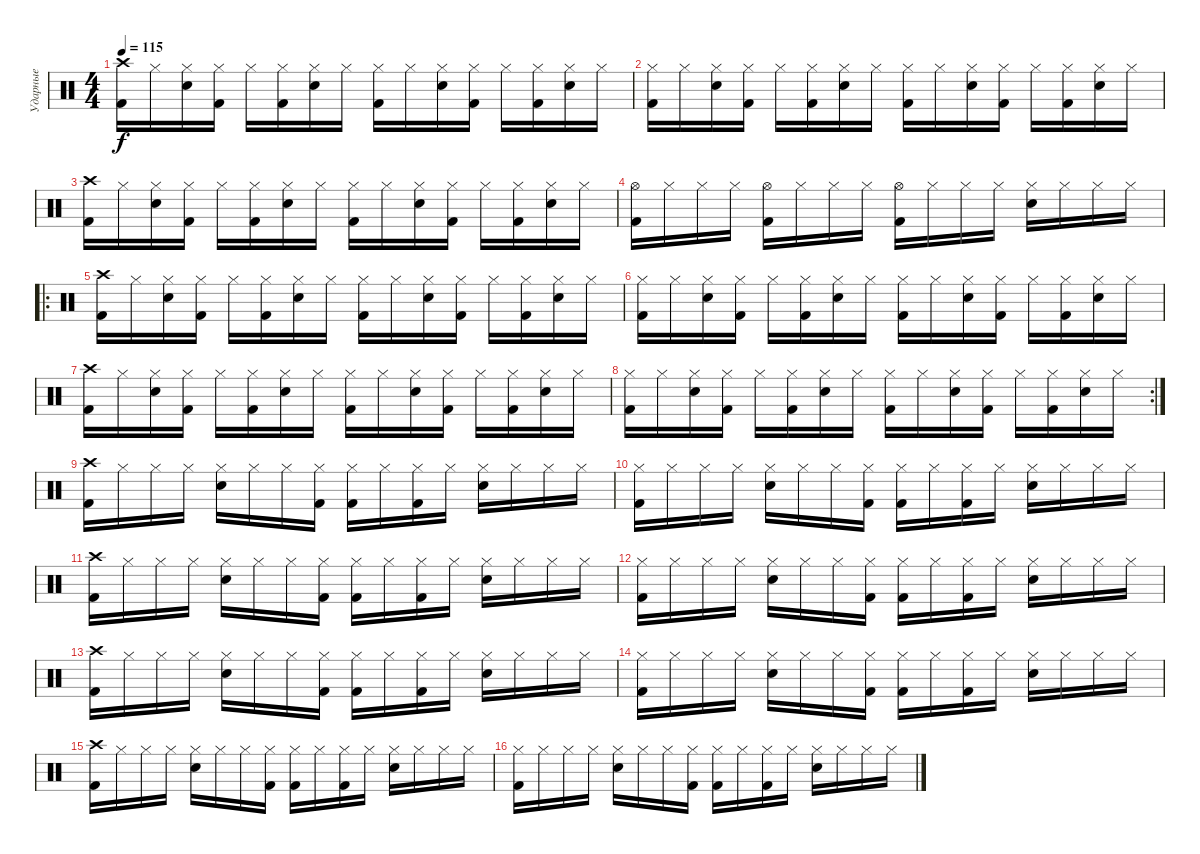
\track ("Ударные" "Ударные") {instrument percussion}
\staff {score}
\articulation defaults
\ts (4 4)
\tempo 115
\clef neutral
\ks c
("Kick (hit) 2" "Crash high (hit)").16{dy f} "Hi-Hat (closed)".16 ("Electric Snare (hit)" "Hi-Hat (closed)").16 ("Kick (hit) 2" "Hi-Hat (closed)").16 "Hi-Hat (closed)".16 ("Kick (hit) 2" "Hi-Hat (closed)").16 ("Electric Snare (hit)" "Hi-Hat (closed)").16 "Hi-Hat (closed)".16 ("Kick (hit) 2" "Hi-Hat (closed)").16 "Hi-Hat (closed)".16 ("Electric Snare (hit)" "Hi-Hat (closed)").16 ("Kick (hit) 2" "Hi-Hat (closed)").16 "Hi-Hat (closed)".16 ("Kick (hit) 2" "Hi-Hat (closed)").16 ("Electric Snare (hit)" "Hi-Hat (closed)").16 "Hi-Hat (closed)".16 |
("Kick (hit) 2" "Hi-Hat (closed)").16 "Hi-Hat (closed)".16 ("Electric Snare (hit)" "Hi-Hat (closed)").16 ("Kick (hit) 2" "Hi-Hat (closed)").16 "Hi-Hat (closed)".16 ("Kick (hit) 2" "Hi-Hat (closed)").16 ("Electric Snare (hit)" "Hi-Hat (closed)").16 "Hi-Hat (closed)".16 ("Kick (hit) 2" "Hi-Hat (closed)").16 "Hi-Hat (closed)".16 ("Electric Snare (hit)" "Hi-Hat (closed)").16 ("Kick (hit) 2" "Hi-Hat (closed)").16 "Hi-Hat (closed)".16 ("Kick (hit) 2" "Hi-Hat (closed)").16 ("Electric Snare (hit)" "Hi-Hat (closed)").16 "Hi-Hat (closed)".16 |
("Kick (hit) 2" "Crash high (hit)").16 "Hi-Hat (closed)".16 ("Electric Snare (hit)" "Hi-Hat (closed)").16 ("Kick (hit) 2" "Hi-Hat (closed)").16 "Hi-Hat (closed)".16 ("Kick (hit) 2" "Hi-Hat (closed)").16 ("Electric Snare (hit)" "Hi-Hat (closed)").16 "Hi-Hat (closed)".16 ("Kick (hit) 2" "Hi-Hat (closed)").16 "Hi-Hat (closed)".16 ("Electric Snare (hit)" "Hi-Hat (closed)").16 ("Kick (hit) 2" "Hi-Hat (closed)").16 "Hi-Hat (closed)".16 ("Kick (hit) 2" "Hi-Hat (closed)").16 ("Electric Snare (hit)" "Hi-Hat (closed)").16 "Hi-Hat (closed)".16 |
("Kick (hit) 2" "Hi-Hat (open)").16 "Hi-Hat (closed)".16 "Hi-Hat (closed)".16 "Hi-Hat (closed)".16 ("Kick (hit) 2" "Hi-Hat (open)").16 "Hi-Hat (closed)".16 "Hi-Hat (closed)".16 "Hi-Hat (closed)".16 ("Kick (hit) 2" "Hi-Hat (open)").16 "Hi-Hat (closed)".16 "Hi-Hat (closed)".16 "Hi-Hat (closed)".16 ("Electric Snare (hit)" "Hi-Hat (closed)").16 "Hi-Hat (closed)".16 "Hi-Hat (closed)".16 "Hi-Hat (closed)".16 |
\ro
("Kick (hit) 2" "Crash high (hit)").16 "Hi-Hat (closed)".16 ("Electric Snare (hit)" "Hi-Hat (closed)").16 ("Kick (hit) 2" "Hi-Hat (closed)").16 "Hi-Hat (closed)".16 ("Kick (hit) 2" "Hi-Hat (closed)").16 ("Electric Snare (hit)" "Hi-Hat (closed)").16 "Hi-Hat (closed)".16 ("Kick (hit) 2" "Hi-Hat (closed)").16 "Hi-Hat (closed)".16 ("Electric Snare (hit)" "Hi-Hat (closed)").16 ("Kick (hit) 2" "Hi-Hat (closed)").16 "Hi-Hat (closed)".16 ("Kick (hit) 2" "Hi-Hat (closed)").16 ("Electric Snare (hit)" "Hi-Hat (closed)").16 "Hi-Hat (closed)".16 |
("Kick (hit) 2" "Hi-Hat (closed)").16 "Hi-Hat (closed)".16 ("Electric Snare (hit)" "Hi-Hat (closed)").16 ("Kick (hit) 2" "Hi-Hat (closed)").16 "Hi-Hat (closed)".16 ("Kick (hit) 2" "Hi-Hat (closed)").16 ("Electric Snare (hit)" "Hi-Hat (closed)").16 "Hi-Hat (closed)".16 ("Kick (hit) 2" "Hi-Hat (closed)").16 "Hi-Hat (closed)".16 ("Electric Snare (hit)" "Hi-Hat (closed)").16 ("Kick (hit) 2" "Hi-Hat (closed)").16 "Hi-Hat (closed)".16 ("Kick (hit) 2" "Hi-Hat (closed)").16 ("Electric Snare (hit)" "Hi-Hat (closed)").16 "Hi-Hat (closed)".16 |
("Kick (hit) 2" "Crash high (hit)").16 "Hi-Hat (closed)".16 ("Electric Snare (hit)" "Hi-Hat (closed)").16 ("Kick (hit) 2" "Hi-Hat (closed)").16 "Hi-Hat (closed)".16 ("Kick (hit) 2" "Hi-Hat (closed)").16 ("Electric Snare (hit)" "Hi-Hat (closed)").16 "Hi-Hat (closed)".16 ("Kick (hit) 2" "Hi-Hat (closed)").16 "Hi-Hat (closed)".16 ("Electric Snare (hit)" "Hi-Hat (closed)").16 ("Kick (hit) 2" "Hi-Hat (closed)").16 "Hi-Hat (closed)".16 ("Kick (hit) 2" "Hi-Hat (closed)").16 ("Electric Snare (hit)" "Hi-Hat (closed)").16 "Hi-Hat (closed)".16 |
\rc 2
("Kick (hit) 2" "Hi-Hat (closed)").16 "Hi-Hat (closed)".16 ("Electric Snare (hit)" "Hi-Hat (closed)").16 ("Kick (hit) 2" "Hi-Hat (closed)").16 "Hi-Hat (closed)".16 ("Kick (hit) 2" "Hi-Hat (closed)").16 ("Electric Snare (hit)" "Hi-Hat (closed)").16 "Hi-Hat (closed)".16 ("Kick (hit) 2" "Hi-Hat (closed)").16 "Hi-Hat (closed)".16 ("Electric Snare (hit)" "Hi-Hat (closed)").16 ("Kick (hit) 2" "Hi-Hat (closed)").16 "Hi-Hat (closed)".16 ("Kick (hit) 2" "Hi-Hat (closed)").16 ("Electric Snare (hit)" "Hi-Hat (closed)").16 "Hi-Hat (closed)".16 |
("Kick (hit) 2" "Crash high (hit)").16 "Hi-Hat (closed)".16 "Hi-Hat (closed)".16 "Hi-Hat (closed)".16 ("Electric Snare (hit)" "Hi-Hat (closed)").16 "Hi-Hat (closed)".16 "Hi-Hat (closed)".16 ("Kick (hit) 2" "Hi-Hat (closed)").16 ("Kick (hit) 2" "Hi-Hat (closed)").16 "Hi-Hat (closed)".16 ("Kick (hit) 2" "Hi-Hat (closed)").16 "Hi-Hat (closed)".16 ("Electric Snare (hit)" "Hi-Hat (closed)").16 "Hi-Hat (closed)".16 "Hi-Hat (closed)".16 "Hi-Hat (closed)".16 |
("Kick (hit) 2" "Hi-Hat (closed)").16 "Hi-Hat (closed)".16 "Hi-Hat (closed)".16 "Hi-Hat (closed)".16 ("Electric Snare (hit)" "Hi-Hat (closed)").16 "Hi-Hat (closed)".16 "Hi-Hat (closed)".16 ("Kick (hit) 2" "Hi-Hat (closed)").16 ("Kick (hit) 2" "Hi-Hat (closed)").16 "Hi-Hat (closed)".16 ("Kick (hit) 2" "Hi-Hat (closed)").16 "Hi-Hat (closed)".16 ("Electric Snare (hit)" "Hi-Hat (closed)").16 "Hi-Hat (closed)".16 "Hi-Hat (closed)".16 "Hi-Hat (closed)".16 |
("Kick (hit) 2" "Crash high (hit)").16 "Hi-Hat (closed)".16 "Hi-Hat (closed)".16 "Hi-Hat (closed)".16 ("Electric Snare (hit)" "Hi-Hat (closed)").16 "Hi-Hat (closed)".16 "Hi-Hat (closed)".16 ("Kick (hit) 2" "Hi-Hat (closed)").16 ("Kick (hit) 2" "Hi-Hat (closed)").16 "Hi-Hat (closed)".16 ("Kick (hit) 2" "Hi-Hat (closed)").16 "Hi-Hat (closed)".16 ("Electric Snare (hit)" "Hi-Hat (closed)").16 "Hi-Hat (closed)".16 "Hi-Hat (closed)".16 "Hi-Hat (closed)".16 |
("Kick (hit) 2" "Hi-Hat (closed)").16 "Hi-Hat (closed)".16 "Hi-Hat (closed)".16 "Hi-Hat (closed)".16 ("Electric Snare (hit)" "Hi-Hat (closed)").16 "Hi-Hat (closed)".16 "Hi-Hat (closed)".16 ("Kick (hit) 2" "Hi-Hat (closed)").16 ("Kick (hit) 2" "Hi-Hat (closed)").16 "Hi-Hat (closed)".16 ("Kick (hit) 2" "Hi-Hat (closed)").16 "Hi-Hat (closed)".16 ("Electric Snare (hit)" "Hi-Hat (closed)").16 "Hi-Hat (closed)".16 "Hi-Hat (closed)".16 "Hi-Hat (closed)".16 |
("Kick (hit) 2" "Crash high (hit)").16 "Hi-Hat (closed)".16 "Hi-Hat (closed)".16 "Hi-Hat (closed)".16 ("Electric Snare (hit)" "Hi-Hat (closed)").16 "Hi-Hat (closed)".16 "Hi-Hat (closed)".16 ("Kick (hit) 2" "Hi-Hat (closed)").16 ("Kick (hit) 2" "Hi-Hat (closed)").16 "Hi-Hat (closed)".16 ("Kick (hit) 2" "Hi-Hat (closed)").16 "Hi-Hat (closed)".16 ("Electric Snare (hit)" "Hi-Hat (closed)").16 "Hi-Hat (closed)".16 "Hi-Hat (closed)".16 "Hi-Hat (closed)".16 |
("Kick (hit) 2" "Hi-Hat (closed)").16 "Hi-Hat (closed)".16 "Hi-Hat (closed)".16 "Hi-Hat (closed)".16 ("Electric Snare (hit)" "Hi-Hat (closed)").16 "Hi-Hat (closed)".16 "Hi-Hat (closed)".16 ("Kick (hit) 2" "Hi-Hat (closed)").16 ("Kick (hit) 2" "Hi-Hat (closed)").16 "Hi-Hat (closed)".16 ("Kick (hit) 2" "Hi-Hat (closed)").16 "Hi-Hat (closed)".16 ("Electric Snare (hit)" "Hi-Hat (closed)").16 "Hi-Hat (closed)".16 "Hi-Hat (closed)".16 "Hi-Hat (closed)".16 |
("Kick (hit) 2" "Crash high (hit)").16 "Hi-Hat (closed)".16 "Hi-Hat (closed)".16 "Hi-Hat (closed)".16 ("Electric Snare (hit)" "Hi-Hat (closed)").16 "Hi-Hat (closed)".16 "Hi-Hat (closed)".16 ("Kick (hit) 2" "Hi-Hat (closed)").16 ("Kick (hit) 2" "Hi-Hat (closed)").16 "Hi-Hat (closed)".16 ("Kick (hit) 2" "Hi-Hat (closed)").16 "Hi-Hat (closed)".16 ("Electric Snare (hit)" "Hi-Hat (closed)").16 "Hi-Hat (closed)".16 "Hi-Hat (closed)".16 "Hi-Hat (closed)".16 |
("Kick (hit) 2" "Hi-Hat (closed)").16 "Hi-Hat (closed)".16 "Hi-Hat (closed)".16 "Hi-Hat (closed)".16 ("Electric Snare (hit)" "Hi-Hat (closed)").16 "Hi-Hat (closed)".16 "Hi-Hat (closed)".16 ("Kick (hit) 2" "Hi-Hat (closed)").16 ("Kick (hit) 2" "Hi-Hat (closed)").16 "Hi-Hat (closed)".16 ("Kick (hit) 2" "Hi-Hat (closed)").16 "Hi-Hat (closed)".16 ("Electric Snare (hit)" "Hi-Hat (closed)").16 "Hi-Hat (closed)".16 "Hi-Hat (closed)".16 "Hi-Hat (closed)".16
